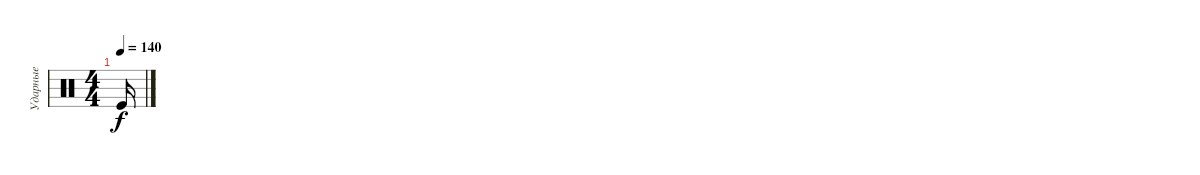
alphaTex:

\track ("Ударные" "Ударные") {instrument percussion}
\staff {score}
\articulation defaults
\ts (4 4)
\tempo 140
\clef neutral
\ks c "Kick (hit)".16{dy f}
